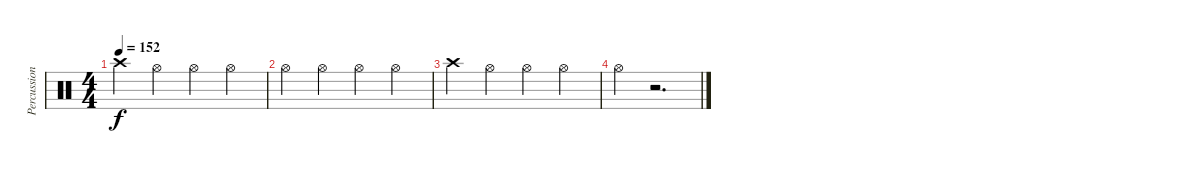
\track ("Percussion" "Percussion") {instrument percussion}
\staff {score}
\articulation defaults
\ts (4 4)
\tempo 152
\clef neutral
\ks c "Crash high (hit)".4{dy f} "Hi-Hat (open)".4 "Hi-Hat (open)".4 "Hi-Hat (open)".4
|
"Hi-Hat (open)".4 "Hi-Hat (open)".4 "Hi-Hat (open)".4 "Hi-Hat (open)".4 |
"Crash high (hit)".4 "Hi-Hat (open)".4 "Hi-Hat (open)".4 "Hi-Hat (open)".4 |
"Hi-Hat (open)".4 r.2{d}
